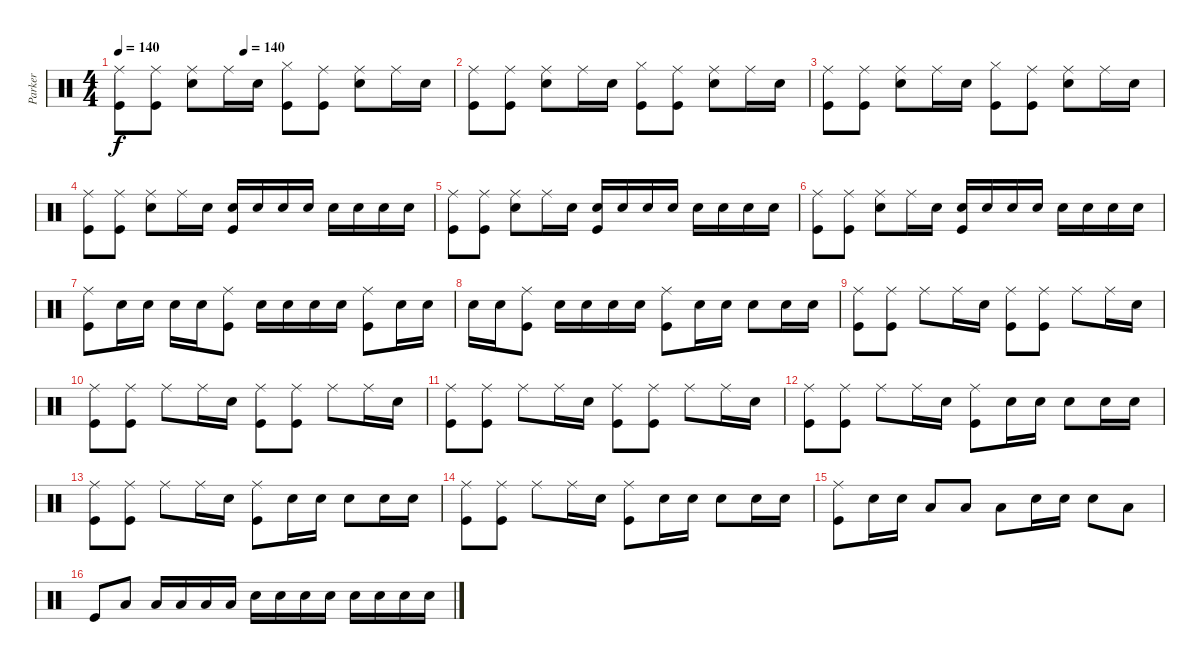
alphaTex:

\track ("Parker" "Parker") {instrument percussion}
\staff {score}
\articulation defaults
\ts (4 4)
\tempo 140
\tempo (140 0.375)
\clef neutral
\ks c
("Ride (middle)" "Kick (hit)").8{dy f} ("Ride (middle)" "Kick (hit)").8 ("Ride (middle)" "Electric Snare (hit)").8 "Ride (middle)".16 "Electric Snare (hit)".16 ("Hi-Hat (closed)" "Kick (hit)").8 ("Ride (middle)" "Kick (hit)").8 ("Ride (middle)" "Electric Snare (hit)").8 "Ride (middle)".16 "Electric Snare (hit)".16 |
("Ride (middle)" "Kick (hit)").8 ("Ride (middle)" "Kick (hit)").8 ("Ride (middle)" "Electric Snare (hit)").8 "Ride (middle)".16 "Electric Snare (hit)".16 ("Hi-Hat (closed)" "Kick (hit)").8 ("Ride (middle)" "Kick (hit)").8 ("Ride (middle)" "Electric Snare (hit)").8 "Ride (middle)".16 "Electric Snare (hit)".16 |
("Ride (middle)" "Kick (hit)").8 ("Ride (middle)" "Kick (hit)").8 ("Ride (middle)" "Electric Snare (hit)").8 "Ride (middle)".16 "Electric Snare (hit)".16 ("Hi-Hat (closed)" "Kick (hit)").8 ("Ride (middle)" "Kick (hit)").8 ("Ride (middle)" "Electric Snare (hit)").8 "Ride (middle)".16 "Electric Snare (hit)".16 |
("Ride (middle)" "Kick (hit)").8 ("Ride (middle)" "Kick (hit)").8 ("Ride (middle)" "Electric Snare (hit)").8 "Ride (middle)".16 "Electric Snare (hit)".16 ("Electric Snare (hit)" "Kick (hit)").16 "Electric Snare (hit)".16 "Electric Snare (hit)".16 "Electric Snare (hit)".16 "Electric Snare (hit)".16 "Electric Snare (hit)".16 "Electric Snare (hit)".16 "Electric Snare (hit)".16 |
("Ride (middle)" "Kick (hit)").8 ("Ride (middle)" "Kick (hit)").8 ("Ride (middle)" "Electric Snare (hit)").8 "Ride (middle)".16 "Electric Snare (hit)".16 ("Electric Snare (hit)" "Kick (hit)").16 "Electric Snare (hit)".16 "Electric Snare (hit)".16 "Electric Snare (hit)".16 "Electric Snare (hit)".16 "Electric Snare (hit)".16 "Electric Snare (hit)".16 "Electric Snare (hit)".16 |
("Ride (middle)" "Kick (hit)").8 ("Ride (middle)" "Kick (hit)").8 ("Ride (middle)" "Electric Snare (hit)").8 "Ride (middle)".16 "Electric Snare (hit)".16 ("Electric Snare (hit)" "Kick (hit)").16 "Electric Snare (hit)".16 "Electric Snare (hit)".16 "Electric Snare (hit)".16 "Electric Snare (hit)".16 "Electric Snare (hit)".16 "Electric Snare (hit)".16 "Electric Snare (hit)".16 |
("Ride (middle)" "Kick (hit)").8 "Electric Snare (hit)".16 "Electric Snare (hit)".16 "Electric Snare (hit)".16 "Electric Snare (hit)".16 ("Ride (middle)" "Kick (hit)").8 "Electric Snare (hit)".16 "Electric Snare (hit)".16 "Electric Snare (hit)".16 "Electric Snare (hit)".16 ("Ride (middle)" "Kick (hit)").8 "Electric Snare (hit)".16 "Electric Snare (hit)".16 |
"Electric Snare (hit)".16 "Electric Snare (hit)".16 ("Ride (middle)" "Kick (hit)").8 "Electric Snare (hit)".16 "Electric Snare (hit)".16 "Electric Snare (hit)".16 "Electric Snare (hit)".16 ("Ride (middle)" "Kick (hit)").8 "Electric Snare (hit)".16 "Electric Snare (hit)".16 "Electric Snare (hit)".8 "Electric Snare (hit)".16 "Electric Snare (hit)".16 |
("Ride (middle)" "Kick (hit)").8 ("Ride (middle)" "Kick (hit)").8 "Ride (middle)".8 "Ride (middle)".16 "Electric Snare (hit)".16 ("Ride (middle)" "Kick (hit)").8 ("Ride (middle)" "Kick (hit)").8 "Ride (middle)".8 "Ride (middle)".16 "Electric Snare (hit)".16 |
("Ride (middle)" "Kick (hit)").8 ("Ride (middle)" "Kick (hit)").8 "Ride (middle)".8 "Ride (middle)".16 "Electric Snare (hit)".16 ("Ride (middle)" "Kick (hit)").8 ("Ride (middle)" "Kick (hit)").8 "Ride (middle)".8 "Ride (middle)".16 "Electric Snare (hit)".16 |
("Ride (middle)" "Kick (hit)").8 ("Ride (middle)" "Kick (hit)").8 "Ride (middle)".8 "Ride (middle)".16 "Electric Snare (hit)".16 ("Ride (middle)" "Kick (hit)").8 ("Ride (middle)" "Kick (hit)").8 "Ride (middle)".8 "Ride (middle)".16 "Electric Snare (hit)".16 |
("Ride (middle)" "Kick (hit)").8 ("Ride (middle)" "Kick (hit)").8 "Ride (middle)".8 "Ride (middle)".16 "Electric Snare (hit)".16 ("Ride (middle)" "Kick (hit)").8 "Electric Snare (hit)".16 "Electric Snare (hit)".16 "Electric Snare (hit)".8 "Electric Snare (hit)".16 "Electric Snare (hit)".16 |
("Ride (middle)" "Kick (hit)").8 ("Ride (middle)" "Kick (hit)").8 "Ride (middle)".8 "Ride (middle)".16 "Electric Snare (hit)".16 ("Ride (middle)" "Kick (hit)").8 "Electric Snare (hit)".16 "Electric Snare (hit)".16 "Electric Snare (hit)".8 "Electric Snare (hit)".16 "Electric Snare (hit)".16 |
("Ride (middle)" "Kick (hit)").8 ("Ride (middle)" "Kick (hit)").8 "Ride (middle)".8 "Ride (middle)".16 "Electric Snare (hit)".16 ("Ride (middle)" "Kick (hit)").8 "Electric Snare (hit)".16 "Electric Snare (hit)".16 "Electric Snare (hit)".8 "Electric Snare (hit)".16 "Electric Snare (hit)".16 |
("Ride (middle)" "Kick (hit)").8 "Electric Snare (hit)".16 "Electric Snare (hit)".16 "Low Tom (hit)".8 "Low Tom (hit)".8 "Low Tom (hit)".8 "Electric Snare (hit)".16 "Electric Snare (hit)".16 "Electric Snare (hit)".8 "Low Tom (hit)".8 |
"Kick (hit)".8 "Low Tom (hit)".8 "Low Tom (hit)".16 "Low Tom (hit)".16 "Low Tom (hit)".16 "Low Tom (hit)".16 "Electric Snare (hit)".16 "Electric Snare (hit)".16 "Electric Snare (hit)".16 "Electric Snare (hit)".16 "Electric Snare (hit)".16 "Electric Snare (hit)".16 "Electric Snare (hit)".16 "Electric Snare (hit)".16
